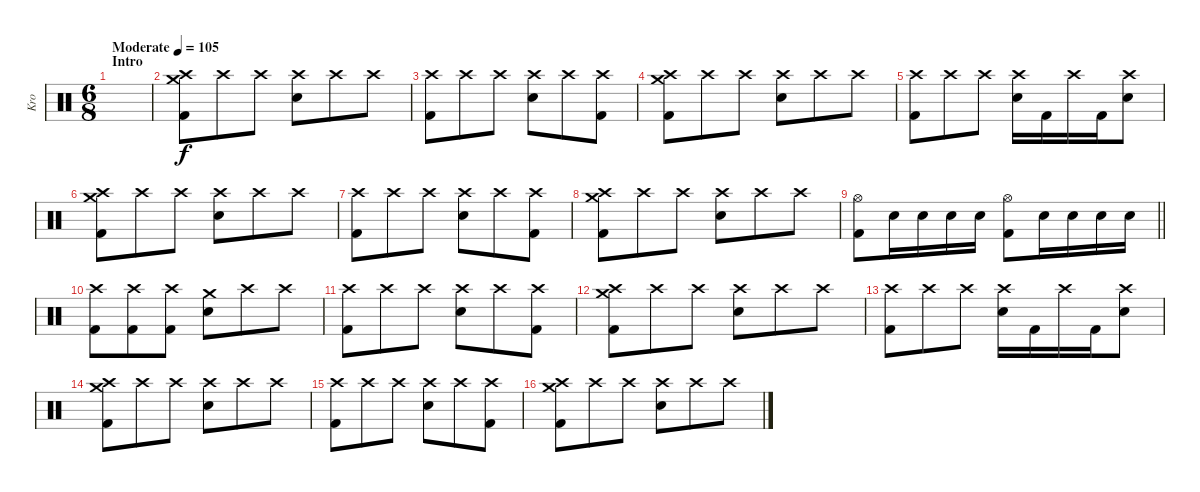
\track ("Kro" "Kro") {instrument percussion}
\staff {score}
\articulation defaults
\ts (6 8)
\section ("" "Intro")
\tempo (105 "Moderate")
\clef neutral
\ks c
|
("Crash medium (hit)" "Crash high (hit)" "Kick (hit) 2").8 "Crash high (hit)".8 "Crash high (hit)".8 ("Crash high (hit)" "Electric Snare (hit)").8 "Crash high (hit)".8 "Crash high (hit)".8 |
("Crash high (hit)" "Kick (hit) 2").8 "Crash high (hit)".8 "Crash high (hit)".8 ("Crash high (hit)" "Electric Snare (hit)").8 "Crash high (hit)".8 ("Crash high (hit)" "Kick (hit) 2").8 |
("Crash medium (hit)" "Crash high (hit)" "Kick (hit) 2").8 "Crash high (hit)".8 "Crash high (hit)".8 ("Crash high (hit)" "Electric Snare (hit)").8 "Crash high (hit)".8 "Crash high (hit)".8 |
("Crash high (hit)" "Kick (hit) 2").8 "Crash high (hit)".8 "Crash high (hit)".8 ("Crash high (hit)" "Electric Snare (hit)").16 "Kick (hit) 2".16 "Crash high (hit)".16 "Kick (hit) 2".16 ("Crash high (hit)" "Electric Snare (hit)").8 |
("Crash medium (hit)" "Crash high (hit)" "Kick (hit) 2").8 "Crash high (hit)".8 "Crash high (hit)".8 ("Crash high (hit)" "Electric Snare (hit)").8 "Crash high (hit)".8 "Crash high (hit)".8 |
("Crash high (hit)" "Kick (hit) 2").8 "Crash high (hit)".8 "Crash high (hit)".8 ("Crash high (hit)" "Electric Snare (hit)").8 "Crash high (hit)".8 ("Crash high (hit)" "Kick (hit) 2").8 |
("Crash medium (hit)" "Crash high (hit)" "Kick (hit) 2").8 "Crash high (hit)".8 "Crash high (hit)".8 ("Crash high (hit)" "Electric Snare (hit)").8 "Crash high (hit)".8 "Crash high (hit)".8 |
\barLineRight lightlight
("Hi-Hat (open)" "Kick (hit) 2").8 "Electric Snare (hit)".16 "Electric Snare (hit)".16 "Electric Snare (hit)".16 "Electric Snare (hit)".16 ("Hi-Hat (open)" "Kick (hit) 2").8 "Electric Snare (hit)".16 "Electric Snare (hit)".16 "Electric Snare (hit)".16 "Electric Snare (hit)".16 |
\section ("" "")
("Crash high (hit)" "Kick (hit) 2").8 ("Crash high (hit)" "Kick (hit) 2").8 ("Crash high (hit)" "Kick (hit) 2").8 ("Crash medium (hit)" "Electric Snare (hit)").8 "Crash high (hit)".8 "Crash high (hit)".8 |
("Crash high (hit)" "Kick (hit) 2").8 "Crash high (hit)".8 "Crash high (hit)".8 ("Crash high (hit)" "Electric Snare (hit)").8 "Crash high (hit)".8 ("Crash high (hit)" "Kick (hit) 2").8 |
("Crash medium (hit)" "Crash high (hit)" "Kick (hit) 2").8 "Crash high (hit)".8 "Crash high (hit)".8 ("Crash high (hit)" "Electric Snare (hit)").8 "Crash high (hit)".8 "Crash high (hit)".8 |
("Crash high (hit)" "Kick (hit) 2").8 "Crash high (hit)".8 "Crash high (hit)".8 ("Crash high (hit)" "Electric Snare (hit)").16 "Kick (hit) 2".16 "Crash high (hit)".16 "Kick (hit) 2".16 ("Crash high (hit)" "Electric Snare (hit)").8 |
("Crash medium (hit)" "Crash high (hit)" "Kick (hit) 2").8 "Crash high (hit)".8 "Crash high (hit)".8 ("Crash high (hit)" "Electric Snare (hit)").8 "Crash high (hit)".8 "Crash high (hit)".8 |
("Crash high (hit)" "Kick (hit) 2").8 "Crash high (hit)".8 "Crash high (hit)".8 ("Crash high (hit)" "Electric Snare (hit)").8 "Crash high (hit)".8 ("Crash high (hit)" "Kick (hit) 2").8 |
("Crash medium (hit)" "Crash high (hit)" "Kick (hit) 2").8 "Crash high (hit)".8 "Crash high (hit)".8 ("Crash high (hit)" "Electric Snare (hit)").8 "Crash high (hit)".8 "Crash high (hit)".8
